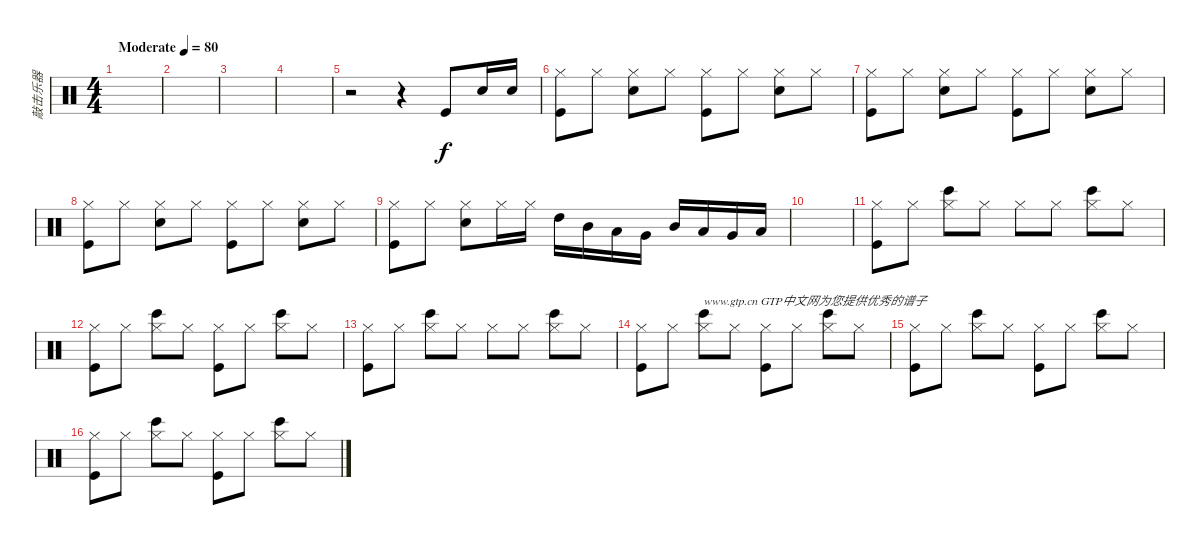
\track ("敲击乐器" "敲击乐器") {instrument percussion}
\staff {score}
\articulation defaults
\ts (4 4)
\tempo (80 "Moderate")
\clef neutral
\ks c
|
|
|
|
r.2 r.4 "Kick (hit)".8 "Snare (hit) 2".16 "Snare (hit) 2".16 |
("Hi-Hat (closed)" "Kick (hit)").8 "Hi-Hat (closed)".8 ("Hi-Hat (closed)" "Snare (hit) 2").8 "Hi-Hat (closed)".8 ("Hi-Hat (closed)" "Kick (hit)").8 "Hi-Hat (closed)".8 ("Snare (hit) 2" "Hi-Hat (closed)").8 "Hi-Hat (closed)".8 |
("Hi-Hat (closed)" "Kick (hit)").8 "Hi-Hat (closed)".8 ("Snare (hit) 2" "Hi-Hat (closed)").8 "Hi-Hat (closed)".8 ("Kick (hit)" "Hi-Hat (closed)").8 "Hi-Hat (closed)".8 ("Snare (hit) 2" "Hi-Hat (closed)").8 "Hi-Hat (closed)".8 |
("Kick (hit)" "Hi-Hat (closed)").8 "Hi-Hat (closed)".8 ("Snare (hit) 2" "Hi-Hat (closed)").8 "Hi-Hat (closed)".8 ("Kick (hit)" "Hi-Hat (closed)").8 "Hi-Hat (closed)".8 ("Snare (hit) 2" "Hi-Hat (closed)").8 "Hi-Hat (closed)".8 |
("Kick (hit)" "Hi-Hat (closed)").8 "Hi-Hat (closed)".8 ("Hi-Hat (closed)" "Snare (hit) 2").8 "Hi-Hat (closed)".16 "Hi-Hat (closed)".16 "High Tom (hit)".16 "Mid Tom (hit)".16 "Low Tom (hit)".16 "Very Low Tom (hit)".16 "Mid Tom (hit)".16 "Low Tom (hit)".16 "Very Low Tom (hit)".16 "Low Floor Tom (hit)".16 |
|
("Hi-Hat (closed)" "Kick (hit)").8 "Hi-Hat (closed)".8 ("Bongo High (hit)" "Hi-Hat (closed)").8 "Hi-Hat (closed)".8 "Hi-Hat (closed)".8 "Hi-Hat (closed)".8 ("Bongo High (hit)" "Hi-Hat (closed)").8 "Hi-Hat (closed)".8 |
("Hi-Hat (closed)" "Kick (hit)").8 "Hi-Hat (closed)".8 ("Hi-Hat (closed)" "Bongo High (hit)").8 "Hi-Hat (closed)".8 ("Hi-Hat (closed)" "Kick (hit)").8 "Hi-Hat (closed)".8 ("Hi-Hat (closed)" "Bongo High (hit)").8 "Hi-Hat (closed)".8 |
("Hi-Hat (closed)" "Kick (hit)").8 "Hi-Hat (closed)".8 ("Hi-Hat (closed)" "Bongo High (hit)").8 "Hi-Hat (closed)".8 "Hi-Hat (closed)".8 "Hi-Hat (closed)".8 ("Hi-Hat (closed)" "Bongo High (hit)").8 "Hi-Hat (closed)".8 |
("Hi-Hat (closed)" "Kick (hit)").8 "Hi-Hat (closed)".8 ("Bongo High (hit)" "Hi-Hat (closed)").8{txt "www.gtp.cn GTP中文网为您提供优秀的谱子"} "Hi-Hat (closed)".8 ("Kick (hit)" "Hi-Hat (closed)").8 "Hi-Hat (closed)".8 ("Bongo High (hit)" "Hi-Hat (closed)").8 "Hi-Hat (closed)".8 |
("Kick (hit)" "Hi-Hat (closed)").8 "Hi-Hat (closed)".8 ("Bongo High (hit)" "Hi-Hat (closed)").8 "Hi-Hat (closed)".8 ("Kick (hit)" "Hi-Hat (closed)").8 "Hi-Hat (closed)".8 ("Bongo High (hit)" "Hi-Hat (closed)").8 "Hi-Hat (closed)".8 |
("Kick (hit)" "Hi-Hat (closed)").8 "Hi-Hat (closed)".8 ("Bongo High (hit)" "Hi-Hat (closed)").8 "Hi-Hat (closed)".8 ("Kick (hit)" "Hi-Hat (closed)").8 "Hi-Hat (closed)".8 ("Bongo High (hit)" "Hi-Hat (closed)").8 "Hi-Hat (closed)".8
